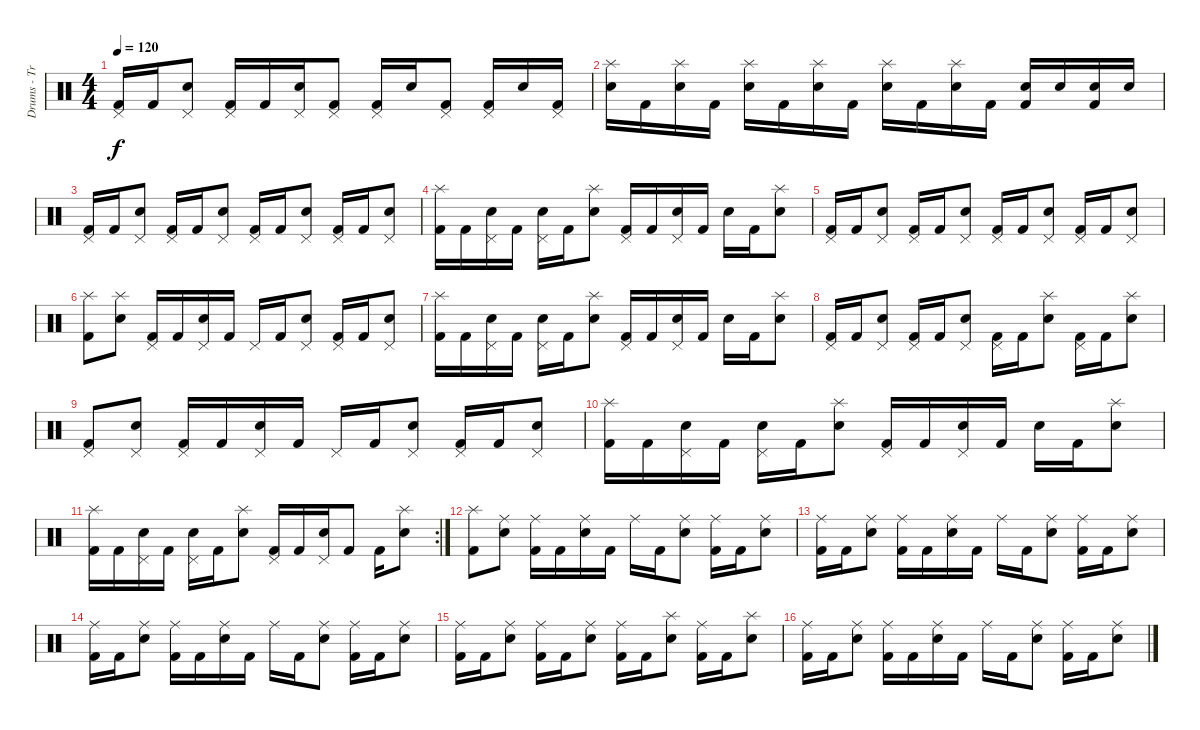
\track ("Drums - Travis Barker" "Drums - Tr") {instrument percussion}
\staff {score}
\articulation defaults
\ts (4 4)
\tempo 120
\clef neutral
\ks c
("Pedal Hi-Hat (hit)" "Kick (hit) 2").16{dy f} "Kick (hit) 2".16 ("Pedal Hi-Hat (hit)" "Electric Snare (hit)").8 ("Pedal Hi-Hat (hit)" "Kick (hit) 2").16 "Kick (hit) 2".16 ("Pedal Hi-Hat (hit)" "Electric Snare (hit)").16 ("Pedal Hi-Hat (hit)" "Kick (hit) 2").8 ("Pedal Hi-Hat (hit)" "Kick (hit) 2").16 "Electric Snare (hit)".16 ("Pedal Hi-Hat (hit)" "Kick (hit) 2").8 ("Pedal Hi-Hat (hit)" "Kick (hit) 2").16 "Electric Snare (hit)".16 ("Pedal Hi-Hat (hit)" "Kick (hit) 2").16 |
("Splash (hit)" "Electric Snare (hit)").16 "Kick (hit) 2".16 ("Splash (hit)" "Electric Snare (hit)").16 "Kick (hit) 2".16 ("Splash (hit)" "Electric Snare (hit)").16 "Kick (hit) 2".16 ("Splash (hit)" "Electric Snare (hit)").16 "Kick (hit) 2".16 ("Splash (hit)" "Electric Snare (hit)").16 "Kick (hit) 2".16 ("Splash (hit)" "Electric Snare (hit)").16 "Kick (hit) 2".16 ("Electric Snare (hit)" "Kick (hit) 2").16 "Electric Snare (hit)".16 ("Electric Snare (hit)" "Kick (hit) 2").16 "Electric Snare (hit)".16 |
("Pedal Hi-Hat (hit)" "Kick (hit) 2").16 "Kick (hit) 2".16 ("Pedal Hi-Hat (hit)" "Electric Snare (hit)").8 ("Pedal Hi-Hat (hit)" "Kick (hit) 2").16 "Kick (hit) 2".16 ("Pedal Hi-Hat (hit)" "Electric Snare (hit)").8 ("Pedal Hi-Hat (hit)" "Kick (hit) 2").16 "Kick (hit) 2".16 ("Pedal Hi-Hat (hit)" "Electric Snare (hit)").8 ("Pedal Hi-Hat (hit)" "Kick (hit) 2").16 "Kick (hit) 2".16 ("Pedal Hi-Hat (hit)" "Electric Snare (hit)").8 |
("Splash (hit)" "Kick (hit) 2").16 "Kick (hit) 2".16 ("Pedal Hi-Hat (hit)" "Electric Snare (hit)").16 "Kick (hit) 2".16 ("Pedal Hi-Hat (hit)" "Electric Snare (hit)").16 "Kick (hit) 2".16 ("Splash (hit)" "Electric Snare (hit)").8 ("Pedal Hi-Hat (hit)" "Kick (hit) 2").16 "Kick (hit) 2".16 ("Pedal Hi-Hat (hit)" "Electric Snare (hit)").16 "Kick (hit) 2".16 "Electric Snare (hit)".16 "Kick (hit) 2".16 ("Splash (hit)" "Electric Snare (hit)").8 |
("Pedal Hi-Hat (hit)" "Kick (hit) 2").16 "Kick (hit) 2".16 ("Pedal Hi-Hat (hit)" "Electric Snare (hit)").8 ("Pedal Hi-Hat (hit)" "Kick (hit) 2").16 "Kick (hit) 2".16 ("Pedal Hi-Hat (hit)" "Electric Snare (hit)").8 ("Pedal Hi-Hat (hit)" "Kick (hit) 2").16 "Kick (hit) 2".16 ("Pedal Hi-Hat (hit)" "Electric Snare (hit)").8 ("Pedal Hi-Hat (hit)" "Kick (hit) 2").16 "Kick (hit) 2".16 ("Pedal Hi-Hat (hit)" "Electric Snare (hit)").8 |
("Splash (hit)" "Kick (hit) 2").8 ("Splash (hit)" "Electric Snare (hit)").8 ("Pedal Hi-Hat (hit)" "Kick (hit) 2").16 "Kick (hit) 2".16 ("Pedal Hi-Hat (hit)" "Electric Snare (hit)").16 "Kick (hit) 2".16 "Pedal Hi-Hat (hit)".16 "Kick (hit) 2".16 ("Pedal Hi-Hat (hit)" "Electric Snare (hit)").8 ("Pedal Hi-Hat (hit)" "Kick (hit) 2").16 "Kick (hit) 2".16 ("Pedal Hi-Hat (hit)" "Electric Snare (hit)").8 |
("Splash (hit)" "Kick (hit) 2").16 "Kick (hit) 2".16 ("Pedal Hi-Hat (hit)" "Electric Snare (hit)").16 "Kick (hit) 2".16 ("Pedal Hi-Hat (hit)" "Electric Snare (hit)").16 "Kick (hit) 2".16 ("Splash (hit)" "Electric Snare (hit)").8 ("Pedal Hi-Hat (hit)" "Kick (hit) 2").16 "Kick (hit) 2".16 ("Pedal Hi-Hat (hit)" "Electric Snare (hit)").16 "Kick (hit) 2".16 "Electric Snare (hit)".16 "Kick (hit) 2".16 ("Splash (hit)" "Electric Snare (hit)").8 |
("Pedal Hi-Hat (hit)" "Kick (hit) 2").16 "Kick (hit) 2".16 ("Pedal Hi-Hat (hit)" "Electric Snare (hit)").8 ("Pedal Hi-Hat (hit)" "Kick (hit) 2").16 "Kick (hit) 2".16 ("Pedal Hi-Hat (hit)" "Electric Snare (hit)").8 ("Pedal Hi-Hat (hit)" "Kick (hit) 2").16 "Kick (hit) 2".16 ("Splash (hit)" "Electric Snare (hit)").8 ("Pedal Hi-Hat (hit)" "Kick (hit) 2").16 "Kick (hit) 2".16 ("Splash (hit)" "Electric Snare (hit)").8 |
("Pedal Hi-Hat (hit)" "Kick (hit) 2").8 ("Pedal Hi-Hat (hit)" "Electric Snare (hit)").8 ("Pedal Hi-Hat (hit)" "Kick (hit) 2").16 "Kick (hit) 2".16 ("Pedal Hi-Hat (hit)" "Electric Snare (hit)").16 "Kick (hit) 2".16 "Pedal Hi-Hat (hit)".16 "Kick (hit) 2".16 ("Pedal Hi-Hat (hit)" "Electric Snare (hit)").8 ("Pedal Hi-Hat (hit)" "Kick (hit) 2").16 "Kick (hit) 2".16 ("Pedal Hi-Hat (hit)" "Electric Snare (hit)").8 |
("Splash (hit)" "Kick (hit) 2").16 "Kick (hit) 2".16 ("Pedal Hi-Hat (hit)" "Electric Snare (hit)").16 "Kick (hit) 2".16 ("Pedal Hi-Hat (hit)" "Electric Snare (hit)").16 "Kick (hit) 2".16 ("Splash (hit)" "Electric Snare (hit)").8 ("Pedal Hi-Hat (hit)" "Kick (hit) 2").16 "Kick (hit) 2".16 ("Pedal Hi-Hat (hit)" "Electric Snare (hit)").16 "Kick (hit) 2".16 "Electric Snare (hit)".16 "Kick (hit) 2".16 ("Splash (hit)" "Electric Snare (hit)").8 |
\rc 2
("Splash (hit)" "Kick (hit) 2").16 "Kick (hit) 2".16 ("Pedal Hi-Hat (hit)" "Electric Snare (hit)").16 "Kick (hit) 2".16 ("Pedal Hi-Hat (hit)" "Electric Snare (hit)").16 "Kick (hit) 2".16 ("Splash (hit)" "Electric Snare (hit)").8 ("Pedal Hi-Hat (hit)" "Kick (hit) 2").16 "Kick (hit) 2".16 ("Pedal Hi-Hat (hit)" "Electric Snare (hit)").16 "Kick (hit) 2".8 "Kick (hit) 2".16 ("Splash (hit)" "Electric Snare (hit)").8 |
("Splash (hit)" "Kick (hit) 2").8 ("Ride (middle)" "Electric Snare (hit)").8 ("Ride (middle)" "Kick (hit) 2").16 "Kick (hit) 2".16 ("Ride (middle)" "Electric Snare (hit)").16 "Kick (hit) 2".16 "Ride (middle)".16 "Kick (hit) 2".16 ("Ride (middle)" "Electric Snare (hit)").8 ("Ride (middle)" "Kick (hit) 2").16 "Kick (hit) 2".16 ("Ride (middle)" "Electric Snare (hit)").8 |
("Ride (middle)" "Kick (hit) 2").16 "Kick (hit) 2".16 ("Ride (middle)" "Electric Snare (hit)").8 ("Ride (middle)" "Kick (hit) 2").16 "Kick (hit) 2".16 ("Ride (middle)" "Electric Snare (hit)").16 "Kick (hit) 2".16 "Ride (middle)".16 "Kick (hit) 2".16 ("Ride (middle)" "Electric Snare (hit)").8 ("Ride (middle)" "Kick (hit) 2").16 "Kick (hit) 2".16 ("Ride (middle)" "Electric Snare (hit)").8 |
("Ride (middle)" "Kick (hit) 2").16 "Kick (hit) 2".16 ("Ride (middle)" "Electric Snare (hit)").8 ("Ride (middle)" "Kick (hit) 2").16 "Kick (hit) 2".16 ("Ride (middle)" "Electric Snare (hit)").16 "Kick (hit) 2".16 "Ride (middle)".16 "Kick (hit) 2".16 ("Ride (middle)" "Electric Snare (hit)").8 ("Ride (middle)" "Kick (hit) 2").16 "Kick (hit) 2".16 ("Ride (middle)" "Electric Snare (hit)").8 |
("Ride (middle)" "Kick (hit) 2").16 "Kick (hit) 2".16 ("Ride (middle)" "Electric Snare (hit)").8 ("Ride (middle)" "Kick (hit) 2").16 "Kick (hit) 2".16 ("Ride (middle)" "Electric Snare (hit)").8 ("Ride (middle)" "Kick (hit) 2").16 "Kick (hit) 2".16 ("Splash (hit)" "Electric Snare (hit)").8 ("Ride (middle)" "Kick (hit) 2").16 "Kick (hit) 2".16 ("Splash (hit)" "Electric Snare (hit)").8 |
("Ride (middle)" "Kick (hit) 2").16 "Kick (hit) 2".16 ("Ride (middle)" "Electric Snare (hit)").8 ("Ride (middle)" "Kick (hit) 2").16 "Kick (hit) 2".16 ("Ride (middle)" "Electric Snare (hit)").16 "Kick (hit) 2".16 "Ride (middle)".16 "Kick (hit) 2".16 ("Ride (middle)" "Electric Snare (hit)").8 ("Ride (middle)" "Kick (hit) 2").16 "Kick (hit) 2".16 ("Ride (middle)" "Electric Snare (hit)").8
